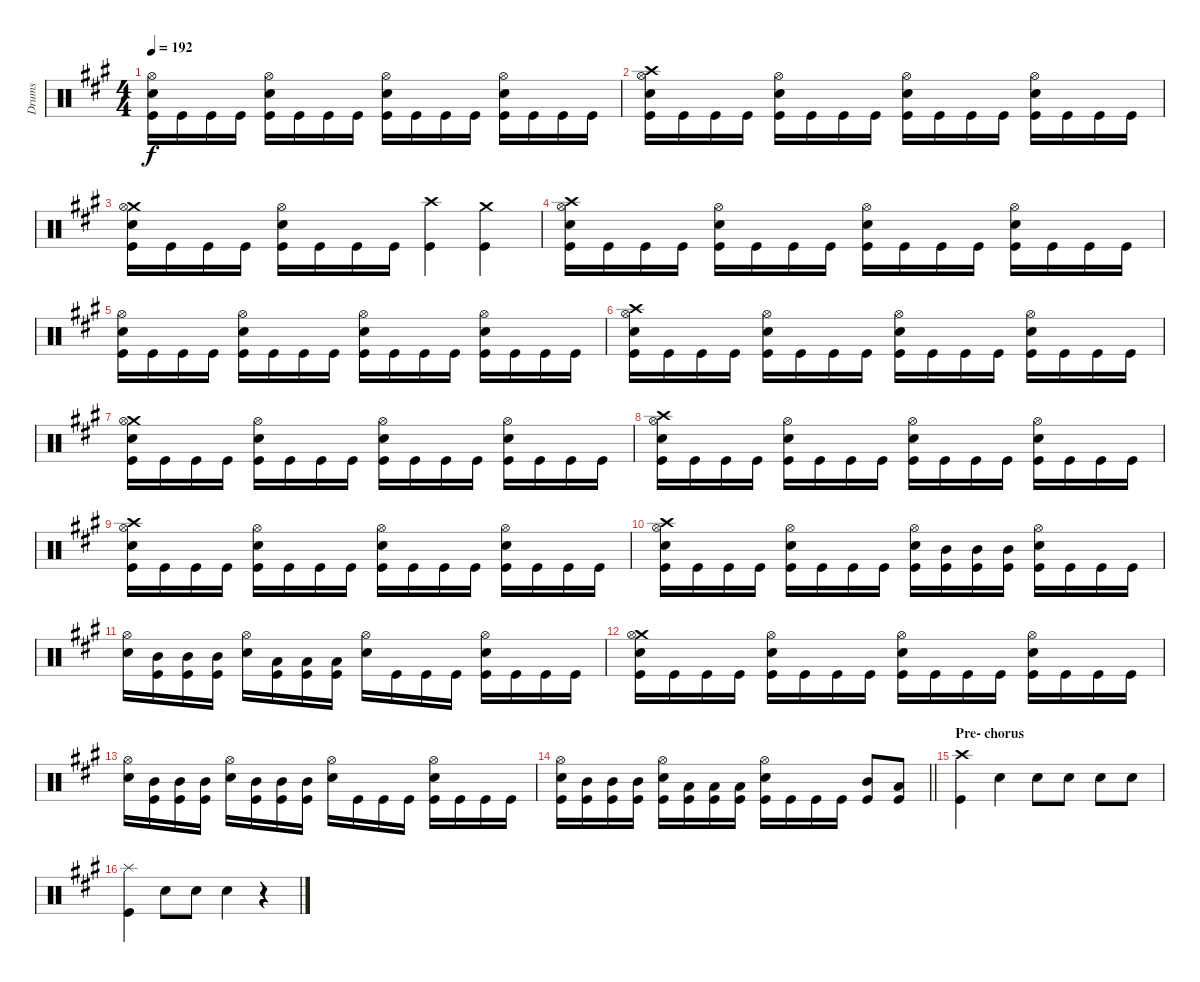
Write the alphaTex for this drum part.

\track ("Drums" "Drums") {instrument percussion}
\staff {score}
\articulation defaults
\ts (4 4)
\tempo 192
\clef neutral
\ks f#minor
("Hi-Hat (open)" "Snare (hit) 2" "Kick (hit)").16{dy f} "Kick (hit)".16 "Kick (hit)".16 "Kick (hit)".16 ("Hi-Hat (open)" "Snare (hit) 2" "Kick (hit)").16 "Kick (hit)".16 "Kick (hit)".16 "Kick (hit)".16 ("Hi-Hat (open)" "Snare (hit) 2" "Kick (hit)").16 "Kick (hit)".16 "Kick (hit)".16 "Kick (hit)".16 ("Hi-Hat (open)" "Snare (hit) 2" "Kick (hit)").16 "Kick (hit)".16 "Kick (hit)".16 "Kick (hit)".16 |
("Crash high (hit)" "Hi-Hat (open)" "Snare (hit) 2" "Kick (hit)").16 "Kick (hit)".16 "Kick (hit)".16 "Kick (hit)".16 ("Hi-Hat (open)" "Snare (hit) 2" "Kick (hit)").16 "Kick (hit)".16 "Kick (hit)".16 "Kick (hit)".16 ("Hi-Hat (open)" "Snare (hit) 2" "Kick (hit)").16 "Kick (hit)".16 "Kick (hit)".16 "Kick (hit)".16 ("Hi-Hat (open)" "Snare (hit) 2" "Kick (hit)").16 "Kick (hit)".16 "Kick (hit)".16 "Kick (hit)".16 |
("Crash medium (hit)" "Hi-Hat (open)" "Snare (hit) 2" "Kick (hit)").16 "Kick (hit)".16 "Kick (hit)".16 "Kick (hit)".16 ("Hi-Hat (open)" "Snare (hit) 2" "Kick (hit)").16 "Kick (hit)".16 "Kick (hit)".16 "Kick (hit)".16 ("Crash high (hit)" "Kick (hit)").4 ("Crash medium (hit)" "Kick (hit)").4 |
("Crash high (hit)" "Hi-Hat (open)" "Snare (hit) 2" "Kick (hit)").16 "Kick (hit)".16 "Kick (hit)".16 "Kick (hit)".16 ("Hi-Hat (open)" "Snare (hit) 2" "Kick (hit)").16 "Kick (hit)".16 "Kick (hit)".16 "Kick (hit)".16 ("Hi-Hat (open)" "Snare (hit) 2" "Kick (hit)").16 "Kick (hit)".16 "Kick (hit)".16 "Kick (hit)".16 ("Hi-Hat (open)" "Snare (hit) 2" "Kick (hit)").16 "Kick (hit)".16 "Kick (hit)".16 "Kick (hit)".16 |
("Hi-Hat (open)" "Snare (hit) 2" "Kick (hit)").16 "Kick (hit)".16 "Kick (hit)".16 "Kick (hit)".16 ("Hi-Hat (open)" "Snare (hit) 2" "Kick (hit)").16 "Kick (hit)".16 "Kick (hit)".16 "Kick (hit)".16 ("Hi-Hat (open)" "Snare (hit) 2" "Kick (hit)").16 "Kick (hit)".16 "Kick (hit)".16 "Kick (hit)".16 ("Hi-Hat (open)" "Snare (hit) 2" "Kick (hit)").16 "Kick (hit)".16 "Kick (hit)".16 "Kick (hit)".16 |
("Crash high (hit)" "Hi-Hat (open)" "Snare (hit) 2" "Kick (hit)").16 "Kick (hit)".16 "Kick (hit)".16 "Kick (hit)".16 ("Hi-Hat (open)" "Snare (hit) 2" "Kick (hit)").16 "Kick (hit)".16 "Kick (hit)".16 "Kick (hit)".16 ("Hi-Hat (open)" "Snare (hit) 2" "Kick (hit)").16 "Kick (hit)".16 "Kick (hit)".16 "Kick (hit)".16 ("Hi-Hat (open)" "Snare (hit) 2" "Kick (hit)").16 "Kick (hit)".16 "Kick (hit)".16 "Kick (hit)".16 |
("Crash medium (hit)" "Hi-Hat (open)" "Snare (hit) 2" "Kick (hit)").16 "Kick (hit)".16 "Kick (hit)".16 "Kick (hit)".16 ("Hi-Hat (open)" "Snare (hit) 2" "Kick (hit)").16 "Kick (hit)".16 "Kick (hit)".16 "Kick (hit)".16 ("Hi-Hat (open)" "Snare (hit) 2" "Kick (hit)").16 "Kick (hit)".16 "Kick (hit)".16 "Kick (hit)".16 ("Hi-Hat (open)" "Snare (hit) 2" "Kick (hit)").16 "Kick (hit)".16 "Kick (hit)".16 "Kick (hit)".16 |
("Crash high (hit)" "Hi-Hat (open)" "Snare (hit) 2" "Kick (hit)").16 "Kick (hit)".16 "Kick (hit)".16 "Kick (hit)".16 ("Hi-Hat (open)" "Snare (hit) 2" "Kick (hit)").16 "Kick (hit)".16 "Kick (hit)".16 "Kick (hit)".16 ("Hi-Hat (open)" "Snare (hit) 2" "Kick (hit)").16 "Kick (hit)".16 "Kick (hit)".16 "Kick (hit)".16 ("Hi-Hat (open)" "Snare (hit) 2" "Kick (hit)").16 "Kick (hit)".16 "Kick (hit)".16 "Kick (hit)".16 |
("Crash high (hit)" "Hi-Hat (open)" "Snare (hit) 2" "Kick (hit)").16 "Kick (hit)".16 "Kick (hit)".16 "Kick (hit)".16 ("Hi-Hat (open)" "Snare (hit) 2" "Kick (hit)").16 "Kick (hit)".16 "Kick (hit)".16 "Kick (hit)".16 ("Hi-Hat (open)" "Snare (hit) 2" "Kick (hit)").16 "Kick (hit)".16 "Kick (hit)".16 "Kick (hit)".16 ("Hi-Hat (open)" "Snare (hit) 2" "Kick (hit)").16 "Kick (hit)".16 "Kick (hit)".16 "Kick (hit)".16 |
("Crash high (hit)" "Hi-Hat (open)" "Snare (hit) 2" "Kick (hit)").16 "Kick (hit)".16 "Kick (hit)".16 "Kick (hit)".16 ("Hi-Hat (open)" "Snare (hit) 2" "Kick (hit)").16 "Kick (hit)".16 "Kick (hit)".16 "Kick (hit)".16 ("Hi-Hat (open)" "Snare (hit) 2" "Kick (hit)").16 ("Mid Tom (hit)" "Kick (hit)").16 ("Mid Tom (hit)" "Kick (hit)").16 ("Mid Tom (hit)" "Kick (hit)").16 ("Hi-Hat (open)" "Snare (hit) 2" "Kick (hit)").16 "Kick (hit)".16 "Kick (hit)".16 "Kick (hit)".16 |
("Hi-Hat (open)" "Snare (hit) 2").16 ("Mid Tom (hit)" "Kick (hit)").16 ("Mid Tom (hit)" "Kick (hit)").16 ("Mid Tom (hit)" "Kick (hit)").16 ("Hi-Hat (open)" "Snare (hit) 2").16 ("Low Tom (hit)" "Kick (hit)").16 ("Low Tom (hit)" "Kick (hit)").16 ("Low Tom (hit)" "Kick (hit)").16 ("Hi-Hat (open)" "Snare (hit) 2").16 "Kick (hit)".16 "Kick (hit)".16 "Kick (hit)".16 ("Hi-Hat (open)" "Snare (hit) 2" "Kick (hit)").16 "Kick (hit)".16 "Kick (hit)".16 "Kick (hit)".16 |
("Crash medium (hit)" "Hi-Hat (open)" "Snare (hit) 2" "Kick (hit)").16 "Kick (hit)".16 "Kick (hit)".16 "Kick (hit)".16 ("Hi-Hat (open)" "Snare (hit) 2" "Kick (hit)").16 "Kick (hit)".16 "Kick (hit)".16 "Kick (hit)".16 ("Hi-Hat (open)" "Snare (hit) 2" "Kick (hit)").16 "Kick (hit)".16 "Kick (hit)".16 "Kick (hit)".16 ("Hi-Hat (open)" "Snare (hit) 2" "Kick (hit)").16 "Kick (hit)".16 "Kick (hit)".16 "Kick (hit)".16 |
("Hi-Hat (open)" "Snare (hit) 2").16 ("Mid Tom (hit)" "Kick (hit)").16 ("Mid Tom (hit)" "Kick (hit)").16 ("Mid Tom (hit)" "Kick (hit)").16 ("Hi-Hat (open)" "Snare (hit) 2").16 ("Mid Tom (hit)" "Kick (hit)").16 ("Mid Tom (hit)" "Kick (hit)").16 ("Mid Tom (hit)" "Kick (hit)").16 ("Hi-Hat (open)" "Snare (hit) 2").16 "Kick (hit)".16 "Kick (hit)".16 "Kick (hit)".16 ("Hi-Hat (open)" "Snare (hit) 2" "Kick (hit)").16 "Kick (hit)".16 "Kick (hit)".16 "Kick (hit)".16 |
\barLineRight lightlight
("Hi-Hat (open)" "Snare (hit) 2" "Kick (hit)").16 ("Mid Tom (hit)" "Kick (hit)").16 ("Mid Tom (hit)" "Kick (hit)").16 ("Mid Tom (hit)" "Kick (hit)").16 ("Hi-Hat (open)" "Snare (hit) 2" "Kick (hit)").16 ("Low Tom (hit)" "Kick (hit)").16 ("Low Tom (hit)" "Kick (hit)").16 ("Low Tom (hit)" "Kick (hit)").16 ("Hi-Hat (open)" "Snare (hit) 2" "Kick (hit)").16 "Kick (hit)".16 "Kick (hit)".16 "Kick (hit)".16 ("Mid Tom (hit)" "Kick (hit)").8 ("Low Tom (hit)" "Kick (hit)").8 |
\section ("" "Pre- chorus")
("Crash high (hit)" "Kick (hit)").4 "Snare (hit) 2".4 "Snare (hit) 2".8 "Snare (hit) 2".8 "Snare (hit) 2".8 "Snare (hit) 2".8 |
("Splash (hit)" "Kick (hit)").4 "Snare (hit) 2".8 "Snare (hit) 2".8 "Snare (hit) 2".4 r.4
